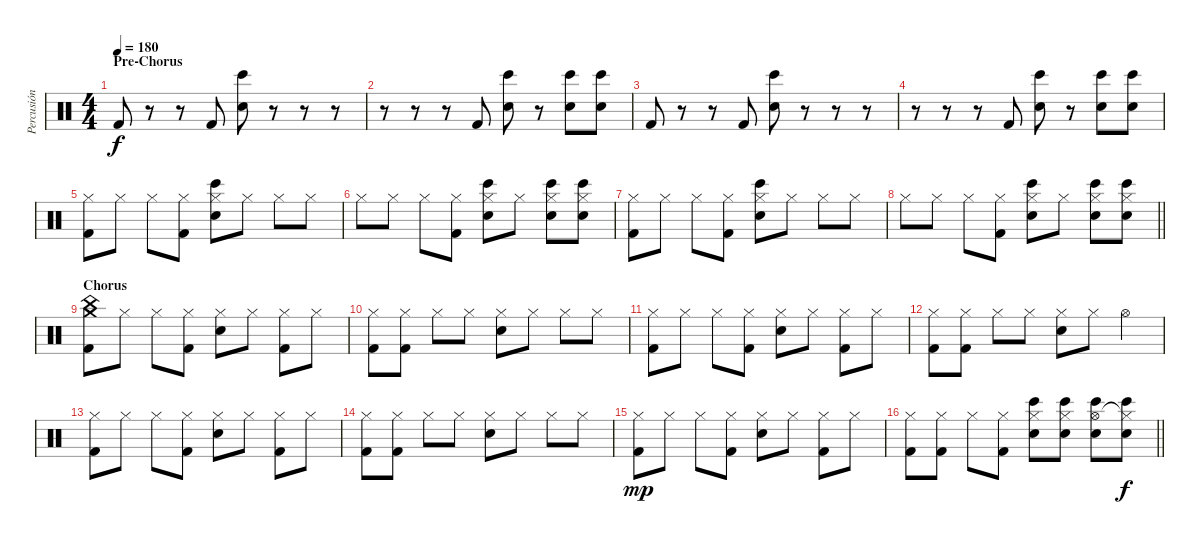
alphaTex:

\track ("Percusión" "Percusión") {instrument percussion}
\staff {score}
\articulation defaults
\ts (4 4)
\section ("" "Pre-Chorus")
\tempo 180
\clef neutral
\ks c "Kick (hit) 2".8{dy f}
r.8 r.8 "Kick (hit) 2".8 ("Bongo High (hit)" "Snare (hit) 2").8 r.8 r.8 r.8 |
r.8 r.8 r.8 "Kick (hit) 2".8 ("Bongo High (hit)" "Snare (hit) 2").8 r.8 ("Bongo High (hit)" "Snare (hit) 2").8 ("Bongo High (hit)" "Snare (hit) 2").8 |
"Kick (hit) 2".8 r.8 r.8 "Kick (hit) 2".8 ("Bongo High (hit)" "Snare (hit) 2").8 r.8 r.8 r.8 |
r.8 r.8 r.8 "Kick (hit) 2".8 ("Bongo High (hit)" "Snare (hit) 2").8 r.8 ("Bongo High (hit)" "Snare (hit) 2").8 ("Bongo High (hit)" "Snare (hit) 2").8 |
("Hi-Hat (closed)" "Kick (hit) 2").8 "Hi-Hat (closed)".8 "Hi-Hat (closed)".8 ("Hi-Hat (closed)" "Kick (hit) 2").8 ("Hi-Hat (closed)" "Bongo High (hit)" "Snare (hit) 2").8 "Hi-Hat (closed)".8 "Hi-Hat (closed)".8 "Hi-Hat (closed)".8 |
"Hi-Hat (closed)".8 "Hi-Hat (closed)".8 "Hi-Hat (closed)".8 ("Hi-Hat (closed)" "Kick (hit) 2").8 ("Hi-Hat (closed)" "Bongo High (hit)" "Snare (hit) 2").8 "Hi-Hat (closed)".8 ("Hi-Hat (closed)" "Bongo High (hit)" "Snare (hit) 2").8 ("Hi-Hat (closed)" "Bongo High (hit)" "Snare (hit) 2").8 |
("Hi-Hat (closed)" "Kick (hit) 2").8 "Hi-Hat (closed)".8 "Hi-Hat (closed)".8 ("Hi-Hat (closed)" "Kick (hit) 2").8 ("Hi-Hat (closed)" "Bongo High (hit)" "Snare (hit) 2").8 "Hi-Hat (closed)".8 "Hi-Hat (closed)".8 "Hi-Hat (closed)".8 |
\barLineRight lightlight "Hi-Hat (closed)".8 "Hi-Hat (closed)".8 "Hi-Hat (closed)".8
("Hi-Hat (closed)" "Kick (hit) 2").8 ("Hi-Hat (closed)" "Bongo High (hit)" "Snare (hit) 2").8 "Hi-Hat (closed)".8 ("Hi-Hat (closed)" "Bongo High (hit)" "Snare (hit) 2").8 ("Hi-Hat (closed)" "Bongo High (hit)" "Snare (hit) 2").8 |
\section ("" "Chorus")
("Crash medium (hit)" "China (hit)" "Kick (hit) 2").8 "Hi-Hat (closed)".8 "Hi-Hat (closed)".8 ("Hi-Hat (closed)" "Kick (hit) 2").8 ("Hi-Hat (closed)" "Snare (hit) 2").8 "Hi-Hat (closed)".8 ("Hi-Hat (closed)" "Kick (hit) 2").8 "Hi-Hat (closed)".8 |
("Hi-Hat (closed)" "Kick (hit) 2").8 ("Hi-Hat (closed)" "Kick (hit) 2").8 "Hi-Hat (closed)".8 "Hi-Hat (closed)".8 ("Hi-Hat (closed)" "Snare (hit) 2").8 "Hi-Hat (closed)".8 "Hi-Hat (closed)".8 "Hi-Hat (closed)".8 |
("Hi-Hat (closed)" "Kick (hit) 2").8 "Hi-Hat (closed)".8 "Hi-Hat (closed)".8 ("Hi-Hat (closed)" "Kick (hit) 2").8 ("Hi-Hat (closed)" "Snare (hit) 2").8 "Hi-Hat (closed)".8 ("Hi-Hat (closed)" "Kick (hit) 2").8 "Hi-Hat (closed)".8 |
("Hi-Hat (closed)" "Kick (hit) 2").8 ("Hi-Hat (closed)" "Kick (hit) 2").8 "Hi-Hat (closed)".8 "Hi-Hat (closed)".8 ("Hi-Hat (closed)" "Snare (hit) 2").8 "Hi-Hat (closed)".8 "Hi-Hat (open)".4 |
("Hi-Hat (closed)" "Kick (hit) 2").8 "Hi-Hat (closed)".8 "Hi-Hat (closed)".8 ("Hi-Hat (closed)" "Kick (hit) 2").8 ("Hi-Hat (closed)" "Snare (hit) 2").8 "Hi-Hat (closed)".8 ("Hi-Hat (closed)" "Kick (hit) 2").8 "Hi-Hat (closed)".8 |
("Hi-Hat (closed)" "Kick (hit) 2").8 ("Hi-Hat (closed)" "Kick (hit) 2").8 "Hi-Hat (closed)".8 "Hi-Hat (closed)".8 ("Hi-Hat (closed)" "Snare (hit) 2").8 "Hi-Hat (closed)".8 "Hi-Hat (closed)".8 "Hi-Hat (closed)".8 |
("Hi-Hat (closed)" "Kick (hit) 2").8{dy mp} "Hi-Hat (closed)".8 "Hi-Hat (closed)".8 ("Hi-Hat (closed)" "Kick (hit) 2").8 ("Hi-Hat (closed)" "Snare (hit) 2").8 "Hi-Hat (closed)".8 ("Hi-Hat (closed)" "Kick (hit) 2").8 "Hi-Hat (closed)".8 |
\barLineRight lightlight
("Hi-Hat (closed)" "Kick (hit) 2").8 ("Hi-Hat (closed)" "Kick (hit) 2").8 "Hi-Hat (closed)".8 ("Hi-Hat (closed)" "Kick (hit) 2").8 ("Hi-Hat (closed)" "Bongo High (hit)" "Snare (hit) 2").8 ("Hi-Hat (closed)" "Bongo High (hit)" "Snare (hit) 2").8 ("Hi-Hat (open)" "Bongo High (hit)" "Snare (hit) 2").8 ("Hi-Hat (closed)"{t} "Bongo High (hit)" "Snare (hit) 2").8{dy f}
